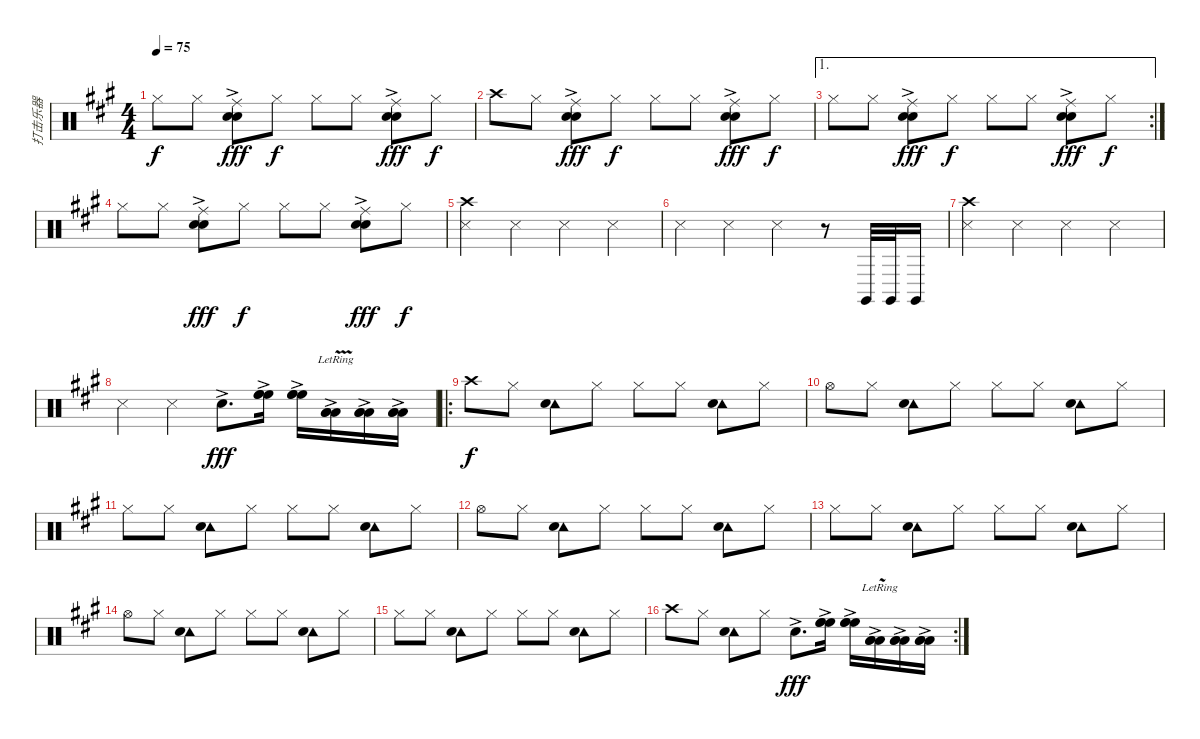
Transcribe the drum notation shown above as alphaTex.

\track ("打击乐器" "打击乐器") {instrument percussion}
\staff {score}
\articulation defaults
\ts (4 4)
\tempo 75
\clef neutral
\ks a "Hi-Hat (closed)".8{dy f} "Hi-Hat (closed)".8
("Snare (hit) 2"{ac} "Ride (middle)" "Electric Snare (hit)").8{dy fff} "Hi-Hat (closed)".8{dy f} "Hi-Hat (closed)".8 "Hi-Hat (closed)".8 ("Snare (hit) 2"{ac} "Ride (middle)" "Electric Snare (hit)").8{dy fff} "Hi-Hat (closed)".8{dy f} |
"Crash high (hit)".8 "Hi-Hat (closed)".8 ("Snare (hit) 2"{ac} "Ride (middle)" "Electric Snare (hit)").8{dy fff} "Hi-Hat (closed)".8{dy f} "Hi-Hat (closed)".8 "Hi-Hat (closed)".8 ("Snare (hit) 2"{ac} "Ride (middle)" "Electric Snare (hit)").8{dy fff} "Hi-Hat (closed)".8{dy f} |
\ae 1
\rc 2 "Hi-Hat (closed)".8 "Hi-Hat (closed)".8
("Snare (hit) 2"{ac} "Ride (middle)" "Electric Snare (hit)").8{dy fff} "Hi-Hat (closed)".8{dy f} "Hi-Hat (closed)".8 "Hi-Hat (closed)".8 ("Snare (hit) 2"{ac} "Ride (middle)" "Electric Snare (hit)").8{dy fff} "Hi-Hat (closed)".8{dy f} |
"Hi-Hat (closed)".8 "Hi-Hat (closed)".8 ("Snare (hit) 2"{ac} "Ride (middle)" "Electric Snare (hit)").8{dy fff} "Hi-Hat (closed)".8{dy f} "Hi-Hat (closed)".8 "Hi-Hat (closed)".8 ("Snare (hit) 2"{ac} "Ride (middle)" "Electric Snare (hit)").8{dy fff} "Hi-Hat (closed)".8{dy f} |
("Metronome (hit)" "Crash high (hit)").4 "Metronome (hit)".4 "Metronome (hit)".4 "Metronome (hit)".4 |
"Metronome (hit)".4 "Metronome (hit)".4 "Metronome (hit)".4 r.8 "Claves (hit)".32 "Claves (hit)".32 "Claves (hit)".16 |
("Metronome (hit)" "Crash high (hit)").4 "Metronome (hit)".4 "Metronome (hit)".4 "Metronome (hit)".4 |
"Metronome (hit)".4 "Metronome (hit)".4 "Electric Snare (hit)"{ac}.8{d dy fff} ("High Floor Tom (hit)"{ac} "High Floor Tom (hit)"{ac} "High Floor Tom (hit)"{ac}).16 ("High Floor Tom (hit)"{ac} "High Floor Tom (hit)"{ac} "High Floor Tom (hit)"{ac}).16 ("Low Tom (hit)"{ac} "Low Tom (hit)"{v ac} "Low Tom (hit)"{v ac lr}).16 ("Low Tom (hit)"{ac lr} "Low Tom (hit)"{ac} "Low Tom (hit)"{ac}).16 ("Low Floor Tom (hit)"{ac} "Low Floor Tom (hit)"{ac} "Low Floor Tom (hit)"{ac}).16 |
\ro "Crash high (hit)".8{dy f} "Hi-Hat (closed)".8
("Tambourine (hit)" "Electric Snare (hit)").8 "Hi-Hat (closed)".8 "Hi-Hat (closed)".8 "Hi-Hat (closed)".8 ("Tambourine (hit)" "Electric Snare (hit)").8 "Hi-Hat (closed)".8 |
"Hi-Hat (open)".8 "Hi-Hat (closed)".8 ("Tambourine (hit)" "Electric Snare (hit)").8 "Hi-Hat (closed)".8 "Hi-Hat (closed)".8 "Hi-Hat (closed)".8 ("Tambourine (hit)" "Electric Snare (hit)").8 "Hi-Hat (closed)".8 |
"Hi-Hat (closed)".8 "Hi-Hat (closed)".8 ("Tambourine (hit)" "Electric Snare (hit)").8 "Hi-Hat (closed)".8 "Hi-Hat (closed)".8 "Hi-Hat (closed)".8 ("Tambourine (hit)" "Electric Snare (hit)").8 "Hi-Hat (closed)".8 |
"Hi-Hat (open)".8 "Hi-Hat (closed)".8 ("Tambourine (hit)" "Electric Snare (hit)").8 "Hi-Hat (closed)".8 "Hi-Hat (closed)".8 "Hi-Hat (closed)".8 ("Tambourine (hit)" "Electric Snare (hit)").8 "Hi-Hat (closed)".8 |
"Hi-Hat (closed)".8 "Hi-Hat (closed)".8 ("Tambourine (hit)" "Electric Snare (hit)").8 "Hi-Hat (closed)".8 "Hi-Hat (closed)".8 "Hi-Hat (closed)".8 ("Tambourine (hit)" "Electric Snare (hit)").8 "Hi-Hat (closed)".8 |
"Hi-Hat (open)".8 "Hi-Hat (closed)".8 ("Tambourine (hit)" "Electric Snare (hit)").8 "Hi-Hat (closed)".8 "Hi-Hat (closed)".8 "Hi-Hat (closed)".8 ("Tambourine (hit)" "Electric Snare (hit)").8 "Hi-Hat (closed)".8 |
"Hi-Hat (closed)".8 "Hi-Hat (closed)".8 ("Tambourine (hit)" "Electric Snare (hit)").8 "Hi-Hat (closed)".8 "Hi-Hat (closed)".8 "Hi-Hat (closed)".8 ("Tambourine (hit)" "Electric Snare (hit)").8 "Hi-Hat (closed)".8 |
\rc 2 "Crash high (hit)".8 "Hi-Hat (closed)".8
("Tambourine (hit)" "Electric Snare (hit)").8 "Hi-Hat (closed)".8 "Electric Snare (hit)"{ac}.8{d dy fff} ("High Floor Tom (hit)"{ac} "High Floor Tom (hit)"{ac} "High Floor Tom (hit)"{ac}).16 ("High Floor Tom (hit)"{ac} "High Floor Tom (hit)"{ac} "High Floor Tom (hit)"{ac}).16 ("Low Tom (hit)"{ac} "Low Tom (hit)"{v ac} "Low Tom (hit)"{v ac lr}).16 ("Low Tom (hit)"{ac lr} "Low Tom (hit)"{ac} "Low Tom (hit)"{ac}).16 ("Low Floor Tom (hit)"{ac} "Low Floor Tom (hit)"{ac} "Low Floor Tom (hit)"{ac}).16
